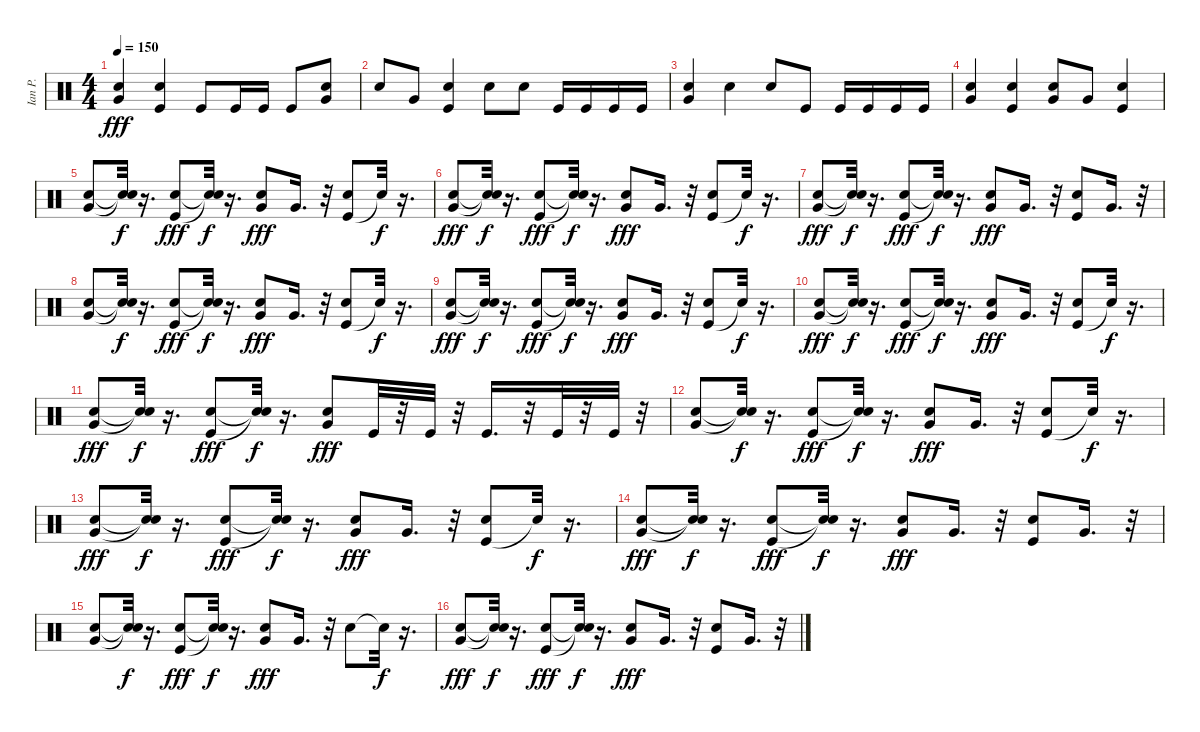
\track ("Ian P." "Ian P.") {instrument percussion}
\staff {score}
\articulation defaults
\ts (4 4)
\tempo 150
\clef neutral
\ks c
("Very Low Tom (hit)" "Electric Snare (hit)").4{dy fff} ("Kick (hit)" "Electric Snare (hit)").4 "Kick (hit)".8 "Kick (hit)".16 "Kick (hit)".16 "Kick (hit)".8 ("Very Low Tom (hit)" "Electric Snare (hit)").8 |
"Electric Snare (hit)".8 "Very Low Tom (hit)".8 ("Kick (hit)" "Electric Snare (hit)").4 "Electric Snare (hit)".8 "Electric Snare (hit)".8 "Kick (hit)".16 "Kick (hit)".16 "Kick (hit)".16 "Kick (hit)".16 |
("Electric Snare (hit)" "Very Low Tom (hit)").4 "Electric Snare (hit)".4 "Electric Snare (hit)".8 "Kick (hit)".8 "Kick (hit)".16 "Kick (hit)".16 "Kick (hit)".16 "Kick (hit)".16 |
("Very Low Tom (hit)" "Electric Snare (hit)").4 ("Kick (hit)" "Electric Snare (hit)").4 ("Very Low Tom (hit)" "Electric Snare (hit)").8 "Very Low Tom (hit)".8 ("Kick (hit)" "Electric Snare (hit)").4 |
("Electric Snare (hit)" "Very Low Tom (hit)").8 ("Snare (hit)"{t} "Snare (hit)"{t}).32{dy f} r.16{d} ("Electric Snare (hit)" "Kick (hit)").8{dy fff} ("Snare (hit)"{t} "Snare (hit)"{t}).32{dy f} r.16{d} ("Electric Snare (hit)" "Very Low Tom (hit)").8{dy fff} "Very Low Tom (hit)".16{d} r.32 ("Kick (hit)" "Electric Snare (hit)").8 "Snare (hit)"{t}.32{dy f} r.16{d} |
("Electric Snare (hit)" "Very Low Tom (hit)").8{dy fff} ("Snare (hit)"{t} "Snare (hit)"{t}).32{dy f} r.16{d} ("Electric Snare (hit)" "Kick (hit)").8{dy fff} ("Snare (hit)"{t} "Snare (hit)"{t}).32{dy f} r.16{d} ("Electric Snare (hit)" "Very Low Tom (hit)").8{dy fff} "Very Low Tom (hit)".16{d} r.32 ("Kick (hit)" "Electric Snare (hit)").8 "Snare (hit)"{t}.32{dy f} r.16{d} |
("Electric Snare (hit)" "Very Low Tom (hit)").8{dy fff} ("Snare (hit)"{t} "Snare (hit)"{t}).32{dy f} r.16{d} ("Electric Snare (hit)" "Kick (hit)").8{dy fff} ("Snare (hit)"{t} "Snare (hit)"{t}).32{dy f} r.16{d} ("Electric Snare (hit)" "Very Low Tom (hit)").8{dy fff} "Very Low Tom (hit)".16{d} r.32 ("Kick (hit)" "Electric Snare (hit)").8 "Very Low Tom (hit)".16{d} r.32 |
("Electric Snare (hit)" "Very Low Tom (hit)").8 ("Snare (hit)"{t} "Snare (hit)"{t}).32{dy f} r.16{d} ("Electric Snare (hit)" "Kick (hit)").8{dy fff} ("Snare (hit)"{t} "Snare (hit)"{t}).32{dy f} r.16{d} ("Electric Snare (hit)" "Very Low Tom (hit)").8{dy fff} "Very Low Tom (hit)".16{d} r.32 ("Kick (hit)" "Electric Snare (hit)").8 "Snare (hit)"{t}.32{dy f} r.16{d} |
("Electric Snare (hit)" "Very Low Tom (hit)").8{dy fff} ("Snare (hit)"{t} "Snare (hit)"{t}).32{dy f} r.16{d} ("Electric Snare (hit)" "Kick (hit)").8{dy fff} ("Snare (hit)"{t} "Snare (hit)"{t}).32{dy f} r.16{d} ("Electric Snare (hit)" "Very Low Tom (hit)").8{dy fff} "Very Low Tom (hit)".16{d} r.32 ("Kick (hit)" "Electric Snare (hit)").8 "Snare (hit)"{t}.32{dy f} r.16{d} |
("Electric Snare (hit)" "Very Low Tom (hit)").8{dy fff} ("Snare (hit)"{t} "Snare (hit)"{t}).32{dy f} r.16{d} ("Electric Snare (hit)" "Kick (hit)").8{dy fff} ("Snare (hit)"{t} "Snare (hit)"{t}).32{dy f} r.16{d} ("Electric Snare (hit)" "Very Low Tom (hit)").8{dy fff} "Very Low Tom (hit)".16{d} r.32 ("Kick (hit)" "Electric Snare (hit)").8 "Snare (hit)"{t}.32{dy f} r.16{d} |
("Electric Snare (hit)" "Very Low Tom (hit)").8{dy fff} ("Snare (hit)"{t} "Snare (hit)"{t}).32{dy f} r.16{d} ("Electric Snare (hit)" "Kick (hit)").8{dy fff} ("Snare (hit)"{t} "Snare (hit)"{t}).32{dy f} r.16{d} ("Electric Snare (hit)" "Very Low Tom (hit)").8{dy fff} "Kick (hit)".32 r.32 "Kick (hit)".32 r.32 "Kick (hit)".16{d} r.32 "Kick (hit)".32 r.32 "Kick (hit)".32 r.32 |
("Electric Snare (hit)" "Very Low Tom (hit)").8 ("Snare (hit)"{t} "Snare (hit)"{t}).32{dy f} r.16{d} ("Electric Snare (hit)" "Kick (hit)").8{dy fff} ("Snare (hit)"{t} "Snare (hit)"{t}).32{dy f} r.16{d} ("Electric Snare (hit)" "Very Low Tom (hit)").8{dy fff} "Very Low Tom (hit)".16{d} r.32 ("Kick (hit)" "Electric Snare (hit)").8 "Snare (hit)"{t}.32{dy f} r.16{d} |
("Electric Snare (hit)" "Very Low Tom (hit)").8{dy fff} ("Snare (hit)"{t} "Snare (hit)"{t}).32{dy f} r.16{d} ("Electric Snare (hit)" "Kick (hit)").8{dy fff} ("Snare (hit)"{t} "Snare (hit)"{t}).32{dy f} r.16{d} ("Electric Snare (hit)" "Very Low Tom (hit)").8{dy fff} "Very Low Tom (hit)".16{d} r.32 ("Kick (hit)" "Electric Snare (hit)").8 "Snare (hit)"{t}.32{dy f} r.16{d} |
("Electric Snare (hit)" "Very Low Tom (hit)").8{dy fff} ("Snare (hit)"{t} "Snare (hit)"{t}).32{dy f} r.16{d} ("Electric Snare (hit)" "Kick (hit)").8{dy fff} ("Snare (hit)"{t} "Snare (hit)"{t}).32{dy f} r.16{d} ("Electric Snare (hit)" "Very Low Tom (hit)").8{dy fff} "Very Low Tom (hit)".16{d} r.32 ("Kick (hit)" "Electric Snare (hit)").8 "Very Low Tom (hit)".16{d} r.32 |
("Electric Snare (hit)" "Very Low Tom (hit)").8 ("Snare (hit)"{t} "Snare (hit)"{t}).32{dy f} r.16{d} ("Electric Snare (hit)" "Kick (hit)").8{dy fff} ("Snare (hit)"{t} "Snare (hit)"{t}).32{dy f} r.16{d} ("Electric Snare (hit)" "Very Low Tom (hit)").8{dy fff} "Very Low Tom (hit)".16{d} r.32 "Electric Snare (hit)".8 "Snare (hit)"{t}.32{dy f} r.16{d} |
("Electric Snare (hit)" "Very Low Tom (hit)").8{dy fff} ("Snare (hit)"{t} "Snare (hit)"{t}).32{dy f} r.16{d} ("Electric Snare (hit)" "Kick (hit)").8{dy fff} ("Snare (hit)"{t} "Snare (hit)"{t}).32{dy f} r.16{d} ("Electric Snare (hit)" "Very Low Tom (hit)").8{dy fff} "Very Low Tom (hit)".16{d} r.32 ("Kick (hit)" "Electric Snare (hit)").8 "Very Low Tom (hit)".16{d} r.32
